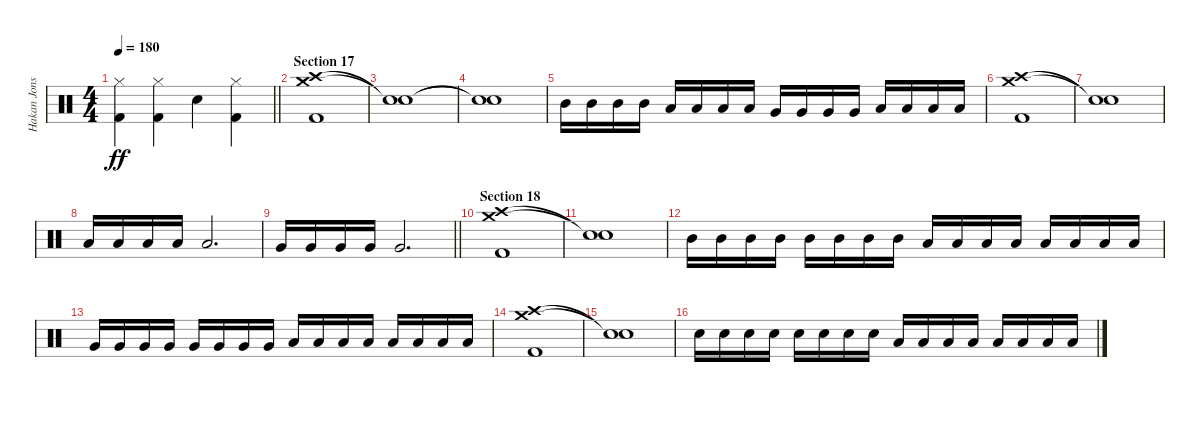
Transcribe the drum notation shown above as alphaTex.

\track ("Hakan Jonsson" "Hakan Jons") {instrument percussion}
\staff {score}
\articulation defaults
\ts (4 4)
\tempo 180
\clef neutral
\barLineRight lightlight
\ks c
("Hi-Hat (closed)" "Kick (hit) 2").4{dy ff} ("Hi-Hat (closed)" "Kick (hit) 2").4 "Electric Snare (hit)".4 ("Hi-Hat (closed)" "Kick (hit) 2").4 |
\section ("" "Section 17")
("Crash high (hit)" "Crash medium (hit)" "Kick (hit) 2").1 |
("Snare (hit)"{t} "Snare (hit)"{t}).1 |
("Snare (hit)"{t} "Snare (hit)"{t}).1 |
"Mid Tom (hit)".16 "Mid Tom (hit)".16 "Mid Tom (hit)".16 "Mid Tom (hit)".16 "Low Tom (hit)".16 "Low Tom (hit)".16 "Low Tom (hit)".16 "Low Tom (hit)".16 "Very Low Tom (hit)".16 "Very Low Tom (hit)".16 "Very Low Tom (hit)".16 "Very Low Tom (hit)".16 "Low Floor Tom (hit)".16 "Low Floor Tom (hit)".16 "Low Floor Tom (hit)".16 "Low Floor Tom (hit)".16 |
("Crash high (hit)" "Crash medium (hit)" "Kick (hit) 2").1 |
("Snare (hit)"{t} "Snare (hit)"{t}).1 |
"Low Tom (hit)".16 "Low Tom (hit)".16 "Low Tom (hit)".16 "Low Tom (hit)".16 "Low Tom (hit)".2{d} |
\barLineRight lightlight "Very Low Tom (hit)".16 "Very Low Tom (hit)".16 "Very Low Tom (hit)".16 "Very Low Tom (hit)".16 "Very Low Tom (hit)".2{d}
|
\section ("" "Section 18")
("Crash high (hit)" "Crash medium (hit)" "Kick (hit) 2").1 |
("Snare (hit)"{t} "Snare (hit)"{t}).1 |
"Mid Tom (hit)".16 "Mid Tom (hit)".16 "Mid Tom (hit)".16 "Mid Tom (hit)".16 "Mid Tom (hit)".16 "Mid Tom (hit)".16 "Mid Tom (hit)".16 "Mid Tom (hit)".16 "Low Tom (hit)".16 "Low Tom (hit)".16 "Low Tom (hit)".16 "Low Tom (hit)".16 "Low Tom (hit)".16 "Low Tom (hit)".16 "Low Tom (hit)".16 "Low Tom (hit)".16 |
"Very Low Tom (hit)".16 "Very Low Tom (hit)".16 "Very Low Tom (hit)".16 "Very Low Tom (hit)".16 "Very Low Tom (hit)".16 "Very Low Tom (hit)".16 "Very Low Tom (hit)".16 "Very Low Tom (hit)".16 "Low Floor Tom (hit)".16 "Low Floor Tom (hit)".16 "Low Floor Tom (hit)".16 "Low Floor Tom (hit)".16 "Low Floor Tom (hit)".16 "Low Floor Tom (hit)".16 "Low Floor Tom (hit)".16 "Low Floor Tom (hit)".16 |
("Crash high (hit)" "Crash medium (hit)" "Kick (hit) 2").1 |
("Snare (hit)"{t} "Snare (hit)"{t}).1 |
"Electric Snare (hit)".16 "Electric Snare (hit)".16 "Electric Snare (hit)".16 "Electric Snare (hit)".16 "Electric Snare (hit)".16 "Electric Snare (hit)".16 "Electric Snare (hit)".16 "Electric Snare (hit)".16 "Low Tom (hit)".16 "Low Tom (hit)".16 "Low Tom (hit)".16 "Low Tom (hit)".16 "Low Tom (hit)".16 "Low Tom (hit)".16 "Low Tom (hit)".16 "Low Tom (hit)".16
